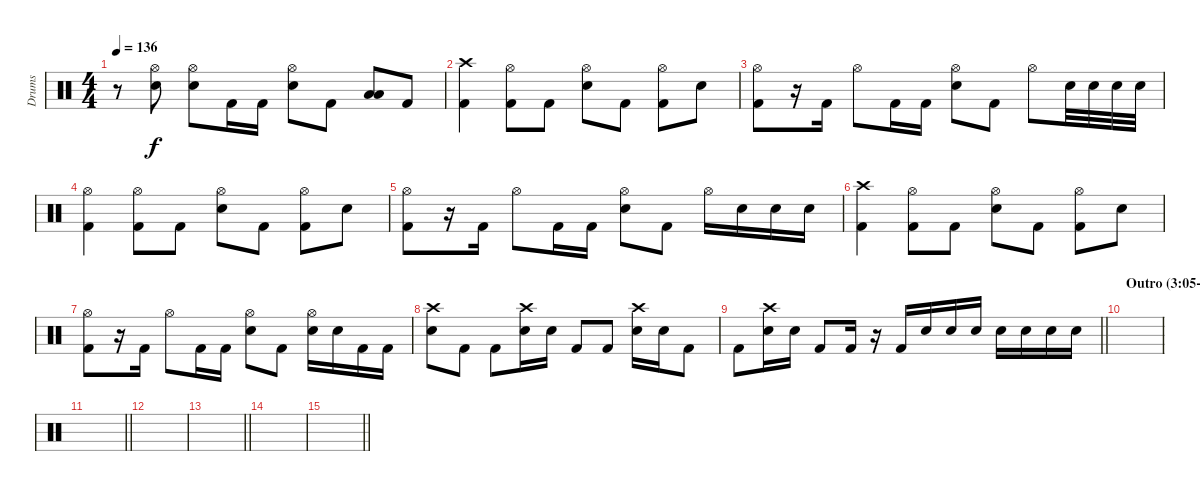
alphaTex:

\track ("Drums" "Drums") {instrument percussion}
\staff {score}
\articulation defaults
\ts (4 4)
\tempo 136
\clef neutral
\ks c
r.8{dy f} ("Snare (hit) 2" "Hi-Hat (open)").8 ("Hi-Hat (open)" "Snare (hit) 2").8 "Kick (hit) 2".16 "Kick (hit) 2".16 ("Hi-Hat (open)" "Snare (hit) 2").8 "Kick (hit) 2".8 ("Low Tom (hit)" "Low Floor Tom (hit)").8 "Kick (hit) 2".8 |
("Crash high (hit)" "Kick (hit) 2").4 ("Kick (hit) 2" "Hi-Hat (open)").8 "Kick (hit) 2".8 ("Snare (hit) 2" "Hi-Hat (open)").8 "Kick (hit) 2".8 ("Kick (hit) 2" "Hi-Hat (open)").8 "Snare (hit) 2".8 |
("Kick (hit) 2" "Hi-Hat (open)").8 r.16 "Kick (hit) 2".16 "Hi-Hat (open)".8 "Kick (hit) 2".16 "Kick (hit) 2".16 ("Hi-Hat (open)" "Snare (hit) 2").8 "Kick (hit) 2".8 "Hi-Hat (open)".8 "Snare (hit) 2".32 "Snare (hit) 2".32 "Snare (hit) 2".32 "Snare (hit) 2".32 |
("Hi-Hat (open)" "Kick (hit) 2").4 ("Kick (hit) 2" "Hi-Hat (open)").8 "Kick (hit) 2".8 ("Snare (hit) 2" "Hi-Hat (open)").8 "Kick (hit) 2".8 ("Kick (hit) 2" "Hi-Hat (open)").8 "Snare (hit) 2".8 |
("Kick (hit) 2" "Hi-Hat (open)").8 r.16 "Kick (hit) 2".16 "Hi-Hat (open)".8 "Kick (hit) 2".16 "Kick (hit) 2".16 ("Hi-Hat (open)" "Snare (hit) 2").8 "Kick (hit) 2".8 "Hi-Hat (open)".16 "Snare (hit) 2".16 "Snare (hit) 2".16 "Snare (hit) 2".16 |
("Crash high (hit)" "Kick (hit) 2").4 ("Kick (hit) 2" "Hi-Hat (open)").8 "Kick (hit) 2".8 ("Snare (hit) 2" "Hi-Hat (open)").8 "Kick (hit) 2".8 ("Kick (hit) 2" "Hi-Hat (open)").8 "Snare (hit) 2".8 |
("Kick (hit) 2" "Hi-Hat (open)").8 r.16 "Kick (hit) 2".16 "Hi-Hat (open)".8 "Kick (hit) 2".16 "Kick (hit) 2".16 ("Hi-Hat (open)" "Snare (hit) 2").8 "Kick (hit) 2".8 ("Hi-Hat (open)" "Snare (hit) 2").16 "Snare (hit) 2".16 "Kick (hit) 2".16 "Kick (hit) 2".16 |
("Crash high (hit)" "Snare (hit) 2").8 "Kick (hit) 2".8 "Kick (hit) 2".8 ("Snare (hit) 2" "Crash high (hit)").16 "Snare (hit) 2".16 "Kick (hit) 2".8 "Kick (hit) 2".8 ("Crash high (hit)" "Snare (hit) 2").16 "Snare (hit) 2".16 "Kick (hit) 2".8 |
\barLineRight lightlight "Kick (hit) 2".8
("Crash high (hit)" "Snare (hit) 2").16 "Snare (hit) 2".16 "Kick (hit) 2".8 "Kick (hit) 2".16 r.16 "Kick (hit) 2".16 "Snare (hit) 2".16 "Snare (hit) 2".16 "Snare (hit) 2".16 "Snare (hit) 2".16 "Snare (hit) 2".16 "Snare (hit) 2".16 "Snare (hit) 2".16 |
\section ("" "Outro (3:05-3:57)")
|
\barLineRight lightlight
|
|
\barLineRight lightlight
|
|
\barLineRight lightlight
